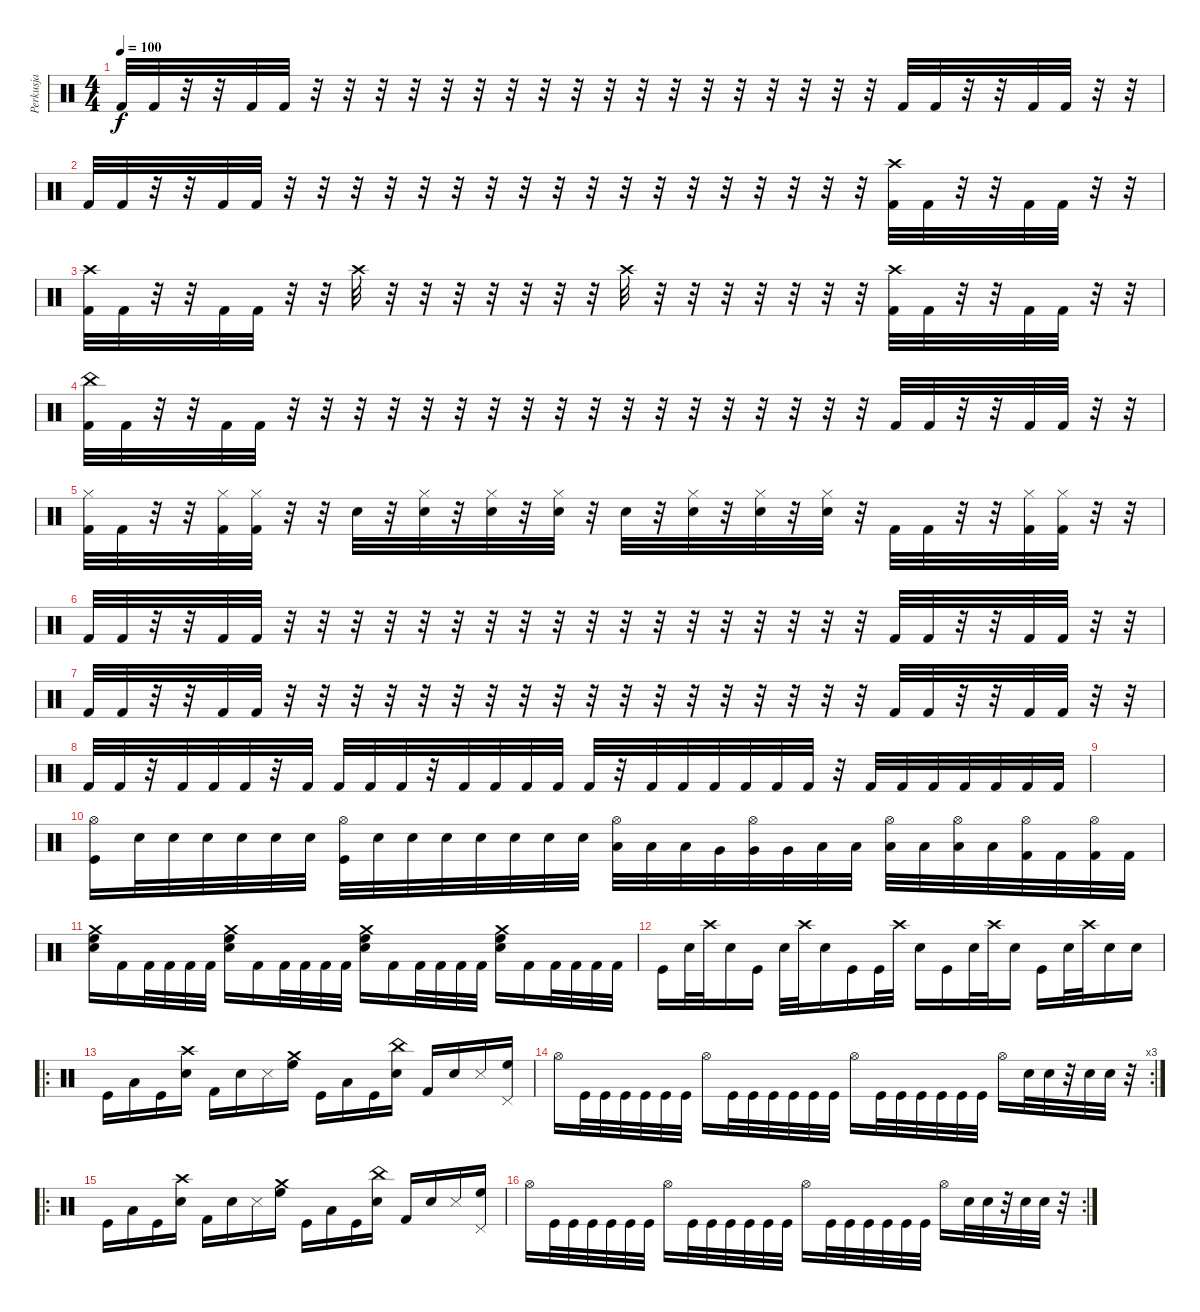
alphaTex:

\track ("Perkusja" "Perkusja") {instrument percussion}
\staff {score}
\articulation defaults
\ts (4 4)
\tempo 100
\clef neutral
\ks c "Kick (hit) 2".32{dy f} "Kick (hit) 2".32
r.32 r.32 "Kick (hit) 2".32 "Kick (hit) 2".32 r.32 r.32 r.32 r.32 r.32 r.32 r.32 r.32 r.32 r.32 r.32 r.32 r.32 r.32 r.32 r.32 r.32 r.32 "Kick (hit) 2".32 "Kick (hit) 2".32 r.32 r.32 "Kick (hit) 2".32 "Kick (hit) 2".32 r.32 r.32 |
"Kick (hit) 2".32 "Kick (hit) 2".32 r.32 r.32 "Kick (hit) 2".32 "Kick (hit) 2".32 r.32 r.32 r.32 r.32 r.32 r.32 r.32 r.32 r.32 r.32 r.32 r.32 r.32 r.32 r.32 r.32 r.32 r.32 ("Crash high (hit)" "Kick (hit) 2").32 "Kick (hit) 2".32 r.32 r.32 "Kick (hit) 2".32 "Kick (hit) 2".32 r.32 r.32 |
("Crash high (hit)" "Kick (hit) 2").32 "Kick (hit) 2".32 r.32 r.32 "Kick (hit) 2".32 "Kick (hit) 2".32 r.32 r.32 "Crash high (hit)".32 r.32 r.32 r.32 r.32 r.32 r.32 r.32 "Crash high (hit)".32 r.32 r.32 r.32 r.32 r.32 r.32 r.32 ("Crash high (hit)" "Kick (hit) 2").32 "Kick (hit) 2".32 r.32 r.32 "Kick (hit) 2".32 "Kick (hit) 2".32 r.32 r.32 |
("China (hit)" "Kick (hit) 2").32 "Kick (hit) 2".32 r.32 r.32 "Kick (hit) 2".32 "Kick (hit) 2".32 r.32 r.32 r.32 r.32 r.32 r.32 r.32 r.32 r.32 r.32 r.32 r.32 r.32 r.32 r.32 r.32 r.32 r.32 "Kick (hit) 2".32 "Kick (hit) 2".32 r.32 r.32 "Kick (hit) 2".32 "Kick (hit) 2".32 r.32 r.32 |
("Hi-Hat (closed)" "Kick (hit) 2").32 "Kick (hit) 2".32 r.32 r.32 ("Hi-Hat (closed)" "Kick (hit) 2").32 ("Hi-Hat (closed)" "Kick (hit) 2").32 r.32 r.32 "Electric Snare (hit)".32 r.32 ("Hi-Hat (closed)" "Electric Snare (hit)").32 r.32 ("Hi-Hat (closed)" "Electric Snare (hit)").32 r.32 ("Hi-Hat (closed)" "Electric Snare (hit)").32 r.32 "Electric Snare (hit)".32 r.32 ("Hi-Hat (closed)" "Electric Snare (hit)").32 r.32 ("Hi-Hat (closed)" "Electric Snare (hit)").32 r.32 ("Hi-Hat (closed)" "Electric Snare (hit)").32 r.32 "Kick (hit) 2".32 "Kick (hit) 2".32 r.32 r.32 ("Hi-Hat (closed)" "Kick (hit) 2").32 ("Hi-Hat (closed)" "Kick (hit) 2").32 r.32 r.32 |
"Kick (hit) 2".32 "Kick (hit) 2".32 r.32 r.32 "Kick (hit) 2".32 "Kick (hit) 2".32 r.32 r.32 r.32 r.32 r.32 r.32 r.32 r.32 r.32 r.32 r.32 r.32 r.32 r.32 r.32 r.32 r.32 r.32 "Kick (hit) 2".32 "Kick (hit) 2".32 r.32 r.32 "Kick (hit) 2".32 "Kick (hit) 2".32 r.32 r.32 |
"Kick (hit) 2".32 "Kick (hit) 2".32 r.32 r.32 "Kick (hit) 2".32 "Kick (hit) 2".32 r.32 r.32 r.32 r.32 r.32 r.32 r.32 r.32 r.32 r.32 r.32 r.32 r.32 r.32 r.32 r.32 r.32 r.32 "Kick (hit) 2".32 "Kick (hit) 2".32 r.32 r.32 "Kick (hit) 2".32 "Kick (hit) 2".32 r.32 r.32 |
"Kick (hit) 2".32 "Kick (hit) 2".32 r.32 "Kick (hit) 2".32 "Kick (hit) 2".32 "Kick (hit) 2".32 r.32 "Kick (hit) 2".32 "Kick (hit) 2".32 "Kick (hit) 2".32 "Kick (hit) 2".32 r.32 "Kick (hit) 2".32 "Kick (hit) 2".32 "Kick (hit) 2".32 "Kick (hit) 2".32 "Kick (hit) 2".32 r.32 "Kick (hit) 2".32 "Kick (hit) 2".32 "Kick (hit) 2".32 "Kick (hit) 2".32 "Kick (hit) 2".32 "Kick (hit) 2".32 r.32 "Kick (hit) 2".32 "Kick (hit) 2".32 "Kick (hit) 2".32 "Kick (hit) 2".32 "Kick (hit) 2".32 "Kick (hit) 2".32 "Kick (hit) 2".32 |
|
("Hi-Hat (open)" "Kick (hit)").16{volume 4} "Electric Snare (hit)".32 "Electric Snare (hit)".32 "Electric Snare (hit)".32 "Electric Snare (hit)".32 "Electric Snare (hit)".32 "Electric Snare (hit)".32 ("Hi-Hat (open)" "Kick (hit)").32{volume 6} "Electric Snare (hit)".32 "Electric Snare (hit)".32 "Electric Snare (hit)".32 "Electric Snare (hit)".32 "Snare (hit) 2".32 "Snare (hit) 2".32 "Snare (hit) 2".32 ("Hi-Hat (open)" "Low Tom (hit)").32{volume 10} "Low Tom (hit)".32 "Low Tom (hit)".32 "Very Low Tom (hit)".32 ("Hi-Hat (open)" "Very Low Tom (hit)").32{volume 12} "Very Low Tom (hit)".32 "Low Floor Tom (hit)".32 "Low Floor Tom (hit)".32 ("Hi-Hat (open)" "Low Floor Tom (hit)").32{volume 13} "Low Floor Tom (hit)".32 ("Hi-Hat (open)" "Low Floor Tom (hit)").32 "Low Floor Tom (hit)".32 ("Hi-Hat (open)" "Kick (hit) 2").32{volume 14} "Kick (hit) 2".32 ("Hi-Hat (open)" "Kick (hit) 2").32 "Kick (hit) 2".32 |
("Crash medium (hit)" "High Floor Tom (hit)" "Electric Snare (hit)").16{volume 15} "Kick (hit) 2".16 "Kick (hit) 2".32 "Kick (hit) 2".32 "Kick (hit) 2".32 "Kick (hit) 2".32 ("Crash medium (hit)" "High Floor Tom (hit)" "Electric Snare (hit)").16 "Kick (hit) 2".16 "Kick (hit) 2".32 "Kick (hit) 2".32 "Kick (hit) 2".32 "Kick (hit) 2".32 ("Crash medium (hit)" "High Floor Tom (hit)" "Electric Snare (hit)").16 "Kick (hit) 2".16 "Kick (hit) 2".32 "Kick (hit) 2".32 "Kick (hit) 2".32 "Kick (hit) 2".32 ("Crash medium (hit)" "High Floor Tom (hit)" "Electric Snare (hit)").16 "Kick (hit) 2".16 "Kick (hit) 2".32 "Kick (hit) 2".32 "Kick (hit) 2".32 "Kick (hit) 2".32 |
"Kick (hit)".16 "Electric Snare (hit)".32 "Crash high (hit)".32 "Electric Snare (hit)".16 "Kick (hit)".16 "Electric Snare (hit)".32 "Crash high (hit)".32 "Electric Snare (hit)".16 "Kick (hit)".16 "Kick (hit)".32 "Crash high (hit)".32 "Electric Snare (hit)".16 "Kick (hit)".16 "Electric Snare (hit)".32 "Crash high (hit)".32 "Electric Snare (hit)".16 "Kick (hit)".16 "Electric Snare (hit)".32 "Crash high (hit)".32 "Electric Snare (hit)".16 "Electric Snare (hit)".16 |
\ro "Kick (hit)".16 "Low Tom (hit)".16 "Kick (hit)".16
("Crash high (hit)" "Electric Snare (hit)").16 "Kick (hit) 2".16 "Snare (hit) 2".16 "Metronome (hit)".16 ("Crash medium (hit)" "High Floor Tom (hit)").16 "Kick (hit)".16 "Low Tom (hit)".16 "Kick (hit)".16 ("China (hit)" "Electric Snare (hit)").16 "Kick (hit) 2".16 "Snare (hit) 2".16 "Metronome (hit)".16 ("Pedal Hi-Hat (hit)" "High Floor Tom (hit)").16 |
\rc 3 "Hi-Hat (open)".16 "Kick (hit)".32 "Kick (hit)".32 "Kick (hit)".32 "Kick (hit)".32 "Kick (hit)".32 "Kick (hit)".32 "Hi-Hat (open)".16 "Kick (hit)".32 "Kick (hit)".32 "Kick (hit)".32 "Kick (hit)".32 "Kick (hit)".32 "Kick (hit)".32 "Hi-Hat (open)".16 "Kick (hit)".32 "Kick (hit)".32 "Kick (hit)".32 "Kick (hit)".32 "Kick (hit)".32 "Kick (hit)".32 "Hi-Hat (open)".16 "Electric Snare (hit)".32 "Electric Snare (hit)".32
r.32 "Electric Snare (hit)".32 "Electric Snare (hit)".32 r.32 |
\ro "Kick (hit)".16 "Low Tom (hit)".16 "Kick (hit)".16
("Crash high (hit)" "Electric Snare (hit)").16 "Kick (hit) 2".16 "Snare (hit) 2".16 "Metronome (hit)".16 ("Crash medium (hit)" "High Floor Tom (hit)").16 "Kick (hit)".16 "Low Tom (hit)".16 "Kick (hit)".16 ("China (hit)" "Electric Snare (hit)").16 "Kick (hit) 2".16 "Snare (hit) 2".16 "Metronome (hit)".16 ("Pedal Hi-Hat (hit)" "High Floor Tom (hit)").16 |
\rc 2 "Hi-Hat (open)".16 "Kick (hit)".32 "Kick (hit)".32 "Kick (hit)".32 "Kick (hit)".32 "Kick (hit)".32 "Kick (hit)".32 "Hi-Hat (open)".16 "Kick (hit)".32 "Kick (hit)".32 "Kick (hit)".32 "Kick (hit)".32 "Kick (hit)".32 "Kick (hit)".32 "Hi-Hat (open)".16 "Kick (hit)".32 "Kick (hit)".32 "Kick (hit)".32 "Kick (hit)".32 "Kick (hit)".32 "Kick (hit)".32 "Hi-Hat (open)".16 "Electric Snare (hit)".32 "Electric Snare (hit)".32
r.32 "Electric Snare (hit)".32 "Electric Snare (hit)".32 r.32
